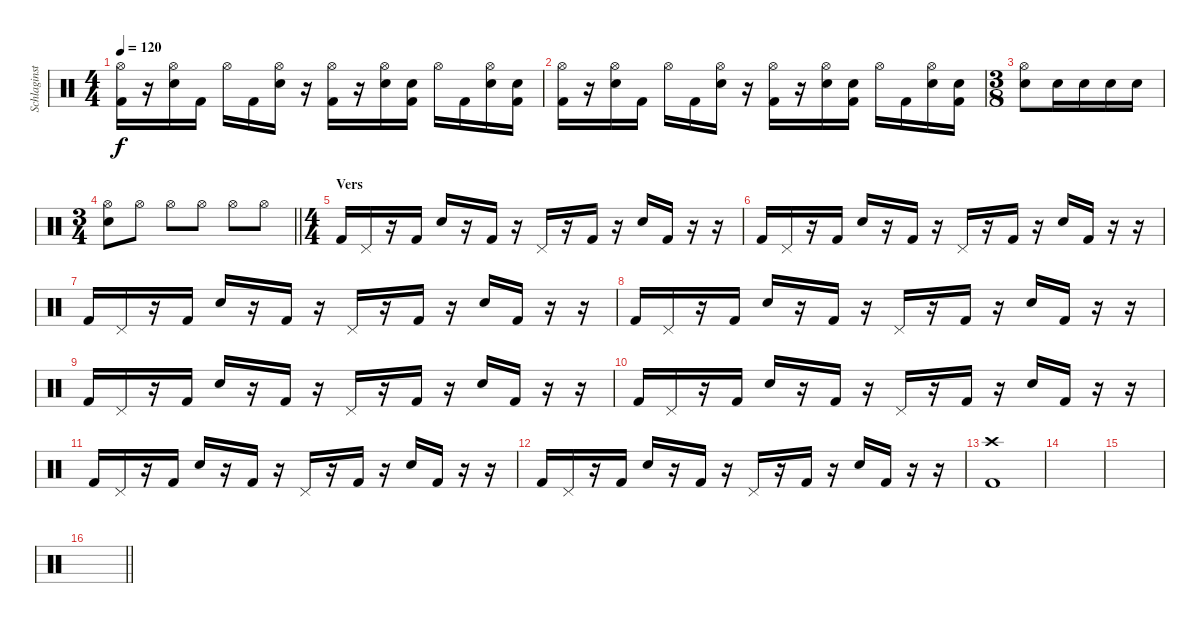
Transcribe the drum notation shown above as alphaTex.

\track ("Schlaginstrumente - Auswahl" "Schlaginst") {instrument percussion}
\staff {score}
\articulation defaults
\ts (4 4)
\tempo 120
\clef neutral
\ks c
("Kick (hit) 2" "Hi-Hat (open)").16{dy f} r.16 ("Snare (hit) 2" "Hi-Hat (open)").16 "Kick (hit) 2".16 "Hi-Hat (open)".16 "Kick (hit) 2".16 ("Snare (hit) 2" "Hi-Hat (open)").16 r.16 ("Kick (hit) 2" "Hi-Hat (open)").16 r.16 ("Snare (hit) 2" "Hi-Hat (open)").16 ("Snare (hit) 2" "Kick (hit) 2").16 "Hi-Hat (open)".16 "Kick (hit) 2".16 ("Snare (hit) 2" "Hi-Hat (open)").16 ("Snare (hit) 2" "Kick (hit) 2").16 |
("Kick (hit) 2" "Hi-Hat (open)").16 r.16 ("Snare (hit) 2" "Hi-Hat (open)").16 "Kick (hit) 2".16 "Hi-Hat (open)".16 "Kick (hit) 2".16 ("Snare (hit) 2" "Hi-Hat (open)").16 r.16 ("Kick (hit) 2" "Hi-Hat (open)").16 r.16 ("Snare (hit) 2" "Hi-Hat (open)").16 ("Snare (hit) 2" "Kick (hit) 2").16 "Hi-Hat (open)".16 "Kick (hit) 2".16 ("Snare (hit) 2" "Hi-Hat (open)").16 ("Snare (hit) 2" "Kick (hit) 2").16 |
\ts (3 8)
("Snare (hit) 2" "Hi-Hat (open)").8 "Snare (hit) 2".16 "Snare (hit) 2".16 "Snare (hit) 2".16 "Snare (hit) 2".16 |
\ts (3 4)
\barLineRight lightlight
("Snare (hit) 2" "Hi-Hat (open)").8 "Hi-Hat (open)".8 "Hi-Hat (open)".8 "Hi-Hat (open)".8 "Hi-Hat (open)".8 "Hi-Hat (open)".8 |
\ts (4 4)
\section ("" "Vers")
"Kick (hit) 2".16 "Pedal Hi-Hat (hit)".16 r.16 "Kick (hit) 2".16 "Snare (hit) 2".16 r.16 "Kick (hit) 2".16 r.16 "Pedal Hi-Hat (hit)".16 r.16 "Kick (hit) 2".16 r.16 "Snare (hit) 2".16 "Kick (hit) 2".16 r.16 r.16 |
"Kick (hit) 2".16 "Pedal Hi-Hat (hit)".16 r.16 "Kick (hit) 2".16 "Snare (hit) 2".16 r.16 "Kick (hit) 2".16 r.16 "Pedal Hi-Hat (hit)".16 r.16 "Kick (hit) 2".16 r.16 "Snare (hit) 2".16 "Kick (hit) 2".16 r.16 r.16 |
"Kick (hit) 2".16 "Pedal Hi-Hat (hit)".16 r.16 "Kick (hit) 2".16 "Snare (hit) 2".16 r.16 "Kick (hit) 2".16 r.16 "Pedal Hi-Hat (hit)".16 r.16 "Kick (hit) 2".16 r.16 "Snare (hit) 2".16 "Kick (hit) 2".16 r.16 r.16 |
"Kick (hit) 2".16 "Pedal Hi-Hat (hit)".16 r.16 "Kick (hit) 2".16 "Snare (hit) 2".16 r.16 "Kick (hit) 2".16 r.16 "Pedal Hi-Hat (hit)".16 r.16 "Kick (hit) 2".16 r.16 "Snare (hit) 2".16 "Kick (hit) 2".16 r.16 r.16 |
"Kick (hit) 2".16 "Pedal Hi-Hat (hit)".16 r.16 "Kick (hit) 2".16 "Snare (hit) 2".16 r.16 "Kick (hit) 2".16 r.16 "Pedal Hi-Hat (hit)".16 r.16 "Kick (hit) 2".16 r.16 "Snare (hit) 2".16 "Kick (hit) 2".16 r.16 r.16 |
"Kick (hit) 2".16 "Pedal Hi-Hat (hit)".16 r.16 "Kick (hit) 2".16 "Snare (hit) 2".16 r.16 "Kick (hit) 2".16 r.16 "Pedal Hi-Hat (hit)".16 r.16 "Kick (hit) 2".16 r.16 "Snare (hit) 2".16 "Kick (hit) 2".16 r.16 r.16 |
"Kick (hit) 2".16 "Pedal Hi-Hat (hit)".16 r.16 "Kick (hit) 2".16 "Snare (hit) 2".16 r.16 "Kick (hit) 2".16 r.16 "Pedal Hi-Hat (hit)".16 r.16 "Kick (hit) 2".16 r.16 "Snare (hit) 2".16 "Kick (hit) 2".16 r.16 r.16 |
"Kick (hit) 2".16 "Pedal Hi-Hat (hit)".16 r.16 "Kick (hit) 2".16 "Snare (hit) 2".16 r.16 "Kick (hit) 2".16 r.16 "Pedal Hi-Hat (hit)".16 r.16 "Kick (hit) 2".16 r.16 "Snare (hit) 2".16 "Kick (hit) 2".16 r.16 r.16 |
("Crash high (hit)" "Kick (hit) 2").1 |
|
|
\barLineRight lightlight
